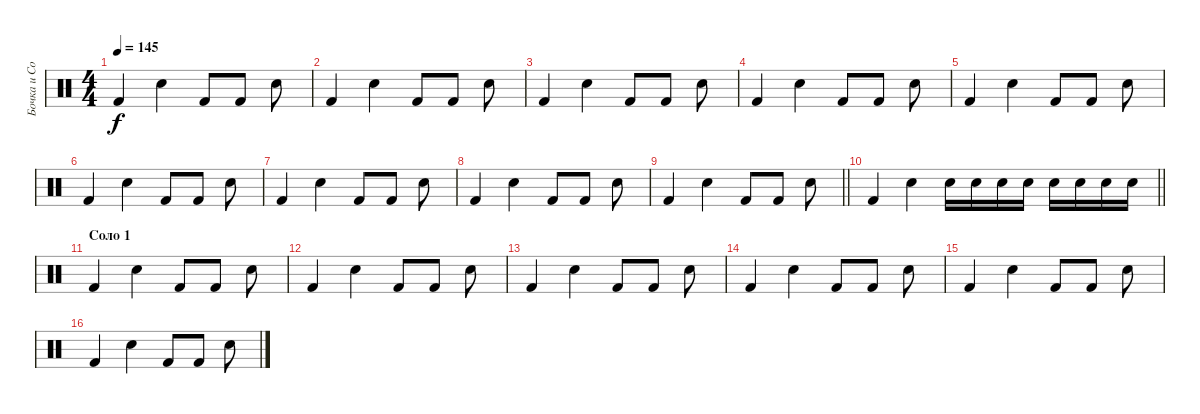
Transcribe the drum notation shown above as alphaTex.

\track ("Бочка и Сольник" "Бочка и Со") {instrument percussion}
\staff {score}
\articulation defaults
\ts (4 4)
\tempo 145
\clef neutral
\ks c "Kick (hit) 2".4{dy f} "Snare (hit) 2".4 "Kick (hit) 2".8 "Kick (hit) 2".8 "Snare (hit) 2".8
|
"Kick (hit) 2".4 "Snare (hit) 2".4 "Kick (hit) 2".8 "Kick (hit) 2".8 "Snare (hit) 2".8 |
"Kick (hit) 2".4 "Snare (hit) 2".4 "Kick (hit) 2".8 "Kick (hit) 2".8 "Snare (hit) 2".8 |
"Kick (hit) 2".4 "Snare (hit) 2".4 "Kick (hit) 2".8 "Kick (hit) 2".8 "Snare (hit) 2".8 |
"Kick (hit) 2".4 "Snare (hit) 2".4 "Kick (hit) 2".8 "Kick (hit) 2".8 "Snare (hit) 2".8 |
"Kick (hit) 2".4 "Snare (hit) 2".4 "Kick (hit) 2".8 "Kick (hit) 2".8 "Snare (hit) 2".8 |
"Kick (hit) 2".4 "Snare (hit) 2".4 "Kick (hit) 2".8 "Kick (hit) 2".8 "Snare (hit) 2".8 |
"Kick (hit) 2".4 "Snare (hit) 2".4 "Kick (hit) 2".8 "Kick (hit) 2".8 "Snare (hit) 2".8 |
\barLineRight lightlight "Kick (hit) 2".4 "Snare (hit) 2".4 "Kick (hit) 2".8 "Kick (hit) 2".8 "Snare (hit) 2".8
|
\barLineRight lightlight "Kick (hit) 2".4 "Snare (hit) 2".4 "Snare (hit) 2".16 "Snare (hit) 2".16 "Snare (hit) 2".16 "Snare (hit) 2".16 "Snare (hit) 2".16 "Snare (hit) 2".16 "Snare (hit) 2".16 "Snare (hit) 2".16
|
\section ("" "Соло 1")
"Kick (hit) 2".4 "Snare (hit) 2".4 "Kick (hit) 2".8 "Kick (hit) 2".8 "Snare (hit) 2".8 |
"Kick (hit) 2".4 "Snare (hit) 2".4 "Kick (hit) 2".8 "Kick (hit) 2".8 "Snare (hit) 2".8 |
"Kick (hit) 2".4 "Snare (hit) 2".4 "Kick (hit) 2".8 "Kick (hit) 2".8 "Snare (hit) 2".8 |
"Kick (hit) 2".4 "Snare (hit) 2".4 "Kick (hit) 2".8 "Kick (hit) 2".8 "Snare (hit) 2".8 |
"Kick (hit) 2".4 "Snare (hit) 2".4 "Kick (hit) 2".8 "Kick (hit) 2".8 "Snare (hit) 2".8 |
"Kick (hit) 2".4 "Snare (hit) 2".4 "Kick (hit) 2".8 "Kick (hit) 2".8 "Snare (hit) 2".8
